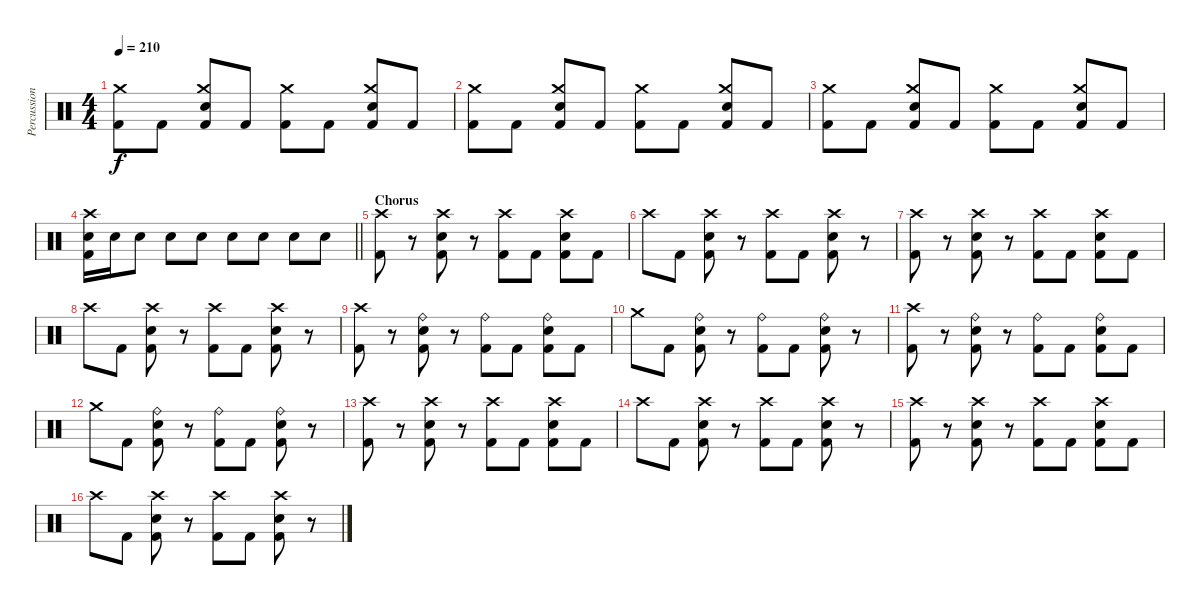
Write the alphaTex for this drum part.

\track ("Percussion" "Percussion") {instrument percussion}
\staff {score}
\articulation defaults
\ts (4 4)
\tempo 210
\clef neutral
\ks c
("Kick (hit) 2" "Crash medium (hit)").8{dy f} "Kick (hit) 2".8 ("Kick (hit) 2" "Electric Snare (hit)" "Crash medium (hit)").8 "Kick (hit) 2".8 ("Kick (hit) 2" "Crash medium (hit)").8 "Kick (hit) 2".8 ("Kick (hit) 2" "Electric Snare (hit)" "Crash medium (hit)").8 "Kick (hit) 2".8 |
("Kick (hit) 2" "Crash medium (hit)").8 "Kick (hit) 2".8 ("Kick (hit) 2" "Electric Snare (hit)" "Crash medium (hit)").8 "Kick (hit) 2".8 ("Kick (hit) 2" "Crash medium (hit)").8 "Kick (hit) 2".8 ("Kick (hit) 2" "Electric Snare (hit)" "Crash medium (hit)").8 "Kick (hit) 2".8 |
("Kick (hit) 2" "Crash medium (hit)").8 "Kick (hit) 2".8 ("Kick (hit) 2" "Electric Snare (hit)" "Crash medium (hit)").8 "Kick (hit) 2".8 ("Kick (hit) 2" "Crash medium (hit)").8 "Kick (hit) 2".8 ("Kick (hit) 2" "Electric Snare (hit)" "Crash medium (hit)").8 "Kick (hit) 2".8 |
\barLineRight lightlight
("Kick (hit) 2" "Electric Snare (hit)" "Crash high (hit)").16 "Electric Snare (hit)".16 "Electric Snare (hit)".8 "Electric Snare (hit)".8 "Electric Snare (hit)".8 "Electric Snare (hit)".8 "Electric Snare (hit)".8 "Electric Snare (hit)".8 "Electric Snare (hit)".8 |
\section ("" "Chorus")
("Kick (hit) 2" "Crash high (hit)").8 r.8 ("Kick (hit) 2" "Electric Snare (hit)" "Crash high (hit)").8 r.8 ("Kick (hit) 2" "Crash high (hit)").8 "Kick (hit) 2".8 ("Kick (hit) 2" "Electric Snare (hit)" "Crash high (hit)").8 "Kick (hit) 2".8 |
"Crash high (hit)".8 "Kick (hit) 2".8 ("Kick (hit) 2" "Electric Snare (hit)" "Crash high (hit)").8 r.8 ("Kick (hit) 2" "Crash high (hit)").8 "Kick (hit) 2".8 ("Kick (hit) 2" "Electric Snare (hit)" "Crash high (hit)").8 r.8 |
("Kick (hit) 2" "Crash high (hit)").8 r.8 ("Kick (hit) 2" "Electric Snare (hit)" "Crash high (hit)").8 r.8 ("Kick (hit) 2" "Crash high (hit)").8 "Kick (hit) 2".8 ("Kick (hit) 2" "Electric Snare (hit)" "Crash high (hit)").8 "Kick (hit) 2".8 |
"Crash high (hit)".8 "Kick (hit) 2".8 ("Kick (hit) 2" "Electric Snare (hit)" "Crash high (hit)").8 r.8 ("Kick (hit) 2" "Crash high (hit)").8 "Kick (hit) 2".8 ("Kick (hit) 2" "Electric Snare (hit)" "Crash high (hit)").8 r.8 |
("Kick (hit) 2" "Crash high (hit)").8 r.8 ("Kick (hit) 2" "Electric Snare (hit)" "Ride (bell)").8 r.8 ("Kick (hit) 2" "Ride (bell)").8 "Kick (hit) 2".8 ("Kick (hit) 2" "Electric Snare (hit)" "Ride (bell)").8 "Kick (hit) 2".8 |
"Crash medium (hit)".8 "Kick (hit) 2".8 ("Kick (hit) 2" "Electric Snare (hit)" "Ride (bell)").8 r.8 ("Kick (hit) 2" "Ride (bell)").8 "Kick (hit) 2".8 ("Kick (hit) 2" "Electric Snare (hit)" "Ride (bell)").8 r.8 |
("Kick (hit) 2" "Crash high (hit)").8 r.8 ("Kick (hit) 2" "Electric Snare (hit)" "Ride (bell)").8 r.8 ("Kick (hit) 2" "Ride (bell)").8 "Kick (hit) 2".8 ("Kick (hit) 2" "Electric Snare (hit)" "Ride (bell)").8 "Kick (hit) 2".8 |
"Crash medium (hit)".8 "Kick (hit) 2".8 ("Kick (hit) 2" "Electric Snare (hit)" "Ride (bell)").8 r.8 ("Kick (hit) 2" "Ride (bell)").8 "Kick (hit) 2".8 ("Kick (hit) 2" "Electric Snare (hit)" "Ride (bell)").8 r.8 |
("Kick (hit) 2" "Crash high (hit)").8 r.8 ("Kick (hit) 2" "Electric Snare (hit)" "Crash high (hit)").8 r.8 ("Kick (hit) 2" "Crash high (hit)").8 "Kick (hit) 2".8 ("Kick (hit) 2" "Electric Snare (hit)" "Crash high (hit)").8 "Kick (hit) 2".8 |
"Crash high (hit)".8 "Kick (hit) 2".8 ("Kick (hit) 2" "Electric Snare (hit)" "Crash high (hit)").8 r.8 ("Kick (hit) 2" "Crash high (hit)").8 "Kick (hit) 2".8 ("Kick (hit) 2" "Electric Snare (hit)" "Crash high (hit)").8 r.8 |
("Kick (hit) 2" "Crash high (hit)").8 r.8 ("Kick (hit) 2" "Electric Snare (hit)" "Crash high (hit)").8 r.8 ("Kick (hit) 2" "Crash high (hit)").8 "Kick (hit) 2".8 ("Kick (hit) 2" "Electric Snare (hit)" "Crash high (hit)").8 "Kick (hit) 2".8 |
"Crash high (hit)".8 "Kick (hit) 2".8 ("Kick (hit) 2" "Electric Snare (hit)" "Crash high (hit)").8 r.8 ("Kick (hit) 2" "Crash high (hit)").8 "Kick (hit) 2".8 ("Kick (hit) 2" "Electric Snare (hit)" "Crash high (hit)").8 r.8
